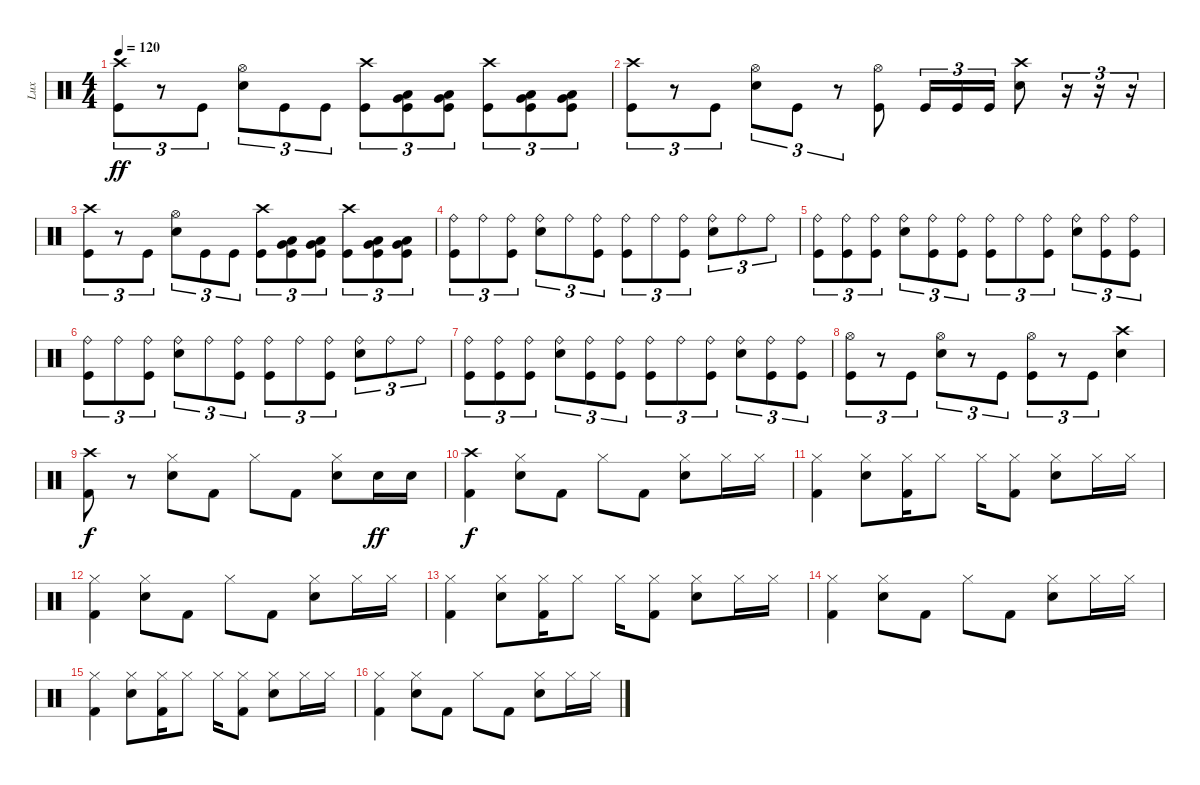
\track ("Lux" "Lux") {instrument percussion bank 32}
\staff {score}
\articulation defaults
\ts (4 4)
\tempo 120
\clef neutral
\ks c
("Crash high (hit)" "Kick (hit)").8{tu (3 2) dy ff} r.8{tu (3 2)} "Kick (hit)".8{tu (3 2)} ("Hi-Hat (open)" "Snare (hit) 2").8{tu (3 2)} "Kick (hit)".8{tu (3 2)} "Kick (hit)".8{tu (3 2)} ("Crash high (hit)" "Kick (hit)").8{tu (3 2)} ("Low Floor Tom (hit)" "Very Low Tom (hit)" "Kick (hit)").8{tu (3 2)} ("Low Floor Tom (hit)" "Very Low Tom (hit)" "Kick (hit)").8{tu (3 2)} ("Crash high (hit)" "Kick (hit)").8{tu (3 2)} ("Low Floor Tom (hit)" "Very Low Tom (hit)" "Kick (hit)").8{tu (3 2)} ("Low Floor Tom (hit)" "Very Low Tom (hit)" "Kick (hit)").8{tu (3 2)} |
("Crash high (hit)" "Kick (hit)").8{tu (3 2)} r.8{tu (3 2)} "Kick (hit)".8{tu (3 2)} ("Hi-Hat (open)" "Snare (hit) 2").8{tu (3 2)} "Kick (hit)".8{tu (3 2)} r.8{tu (3 2)} ("Hi-Hat (open)" "Kick (hit)").8 "Kick (hit)".16{tu (3 2)} "Kick (hit)".16{tu (3 2)} "Kick (hit)".16{tu (3 2)} ("Crash high (hit)" "Snare (hit) 2").8 r.16{tu (3 2)} r.16{tu (3 2)} r.16{tu (3 2)} |
("Crash high (hit)" "Kick (hit)").8{tu (3 2)} r.8{tu (3 2)} "Kick (hit)".8{tu (3 2)} ("Hi-Hat (open)" "Snare (hit) 2").8{tu (3 2)} "Kick (hit)".8{tu (3 2)} "Kick (hit)".8{tu (3 2)} ("Crash high (hit)" "Kick (hit)").8{tu (3 2)} ("Low Floor Tom (hit)" "Very Low Tom (hit)" "Kick (hit)").8{tu (3 2)} ("Low Floor Tom (hit)" "Very Low Tom (hit)" "Kick (hit)").8{tu (3 2)} ("Crash high (hit)" "Kick (hit)").8{tu (3 2)} ("Low Floor Tom (hit)" "Very Low Tom (hit)" "Kick (hit)").8{tu (3 2)} ("Low Floor Tom (hit)" "Very Low Tom (hit)" "Kick (hit)").8{tu (3 2)} |
("Ride (bell)" "Kick (hit)").8{tu (3 2)} "Ride (bell)".8{tu (3 2)} ("Ride (bell)" "Kick (hit)").8{tu (3 2)} ("Ride (bell)" "Snare (hit) 2").8{tu (3 2)} "Ride (bell)".8{tu (3 2)} ("Ride (bell)" "Kick (hit)").8{tu (3 2)} ("Ride (bell)" "Kick (hit)").8{tu (3 2)} "Ride (bell)".8{tu (3 2)} ("Ride (bell)" "Kick (hit)").8{tu (3 2)} ("Ride (bell)" "Snare (hit) 2").8{tu (3 2)} "Ride (bell)".8{tu (3 2)} "Ride (bell)".8{tu (3 2)} |
("Ride (bell)" "Kick (hit)").8{tu (3 2)} ("Ride (bell)" "Kick (hit)").8{tu (3 2)} ("Ride (bell)" "Kick (hit)").8{tu (3 2)} ("Ride (bell)" "Snare (hit) 2").8{tu (3 2)} ("Ride (bell)" "Kick (hit)").8{tu (3 2)} ("Ride (bell)" "Kick (hit)").8{tu (3 2)} ("Ride (bell)" "Kick (hit)").8{tu (3 2)} "Ride (bell)".8{tu (3 2)} ("Ride (bell)" "Kick (hit)").8{tu (3 2)} ("Ride (bell)" "Snare (hit) 2").8{tu (3 2)} ("Ride (bell)" "Kick (hit)").8{tu (3 2)} ("Ride (bell)" "Kick (hit)").8{tu (3 2)} |
("Ride (bell)" "Kick (hit)").8{tu (3 2)} "Ride (bell)".8{tu (3 2)} ("Ride (bell)" "Kick (hit)").8{tu (3 2)} ("Ride (bell)" "Snare (hit) 2").8{tu (3 2)} "Ride (bell)".8{tu (3 2)} ("Ride (bell)" "Kick (hit)").8{tu (3 2)} ("Ride (bell)" "Kick (hit)").8{tu (3 2)} "Ride (bell)".8{tu (3 2)} ("Ride (bell)" "Kick (hit)").8{tu (3 2)} ("Ride (bell)" "Snare (hit) 2").8{tu (3 2)} "Ride (bell)".8{tu (3 2)} "Ride (bell)".8{tu (3 2)} |
("Ride (bell)" "Kick (hit)").8{tu (3 2)} ("Ride (bell)" "Kick (hit)").8{tu (3 2)} ("Ride (bell)" "Kick (hit)").8{tu (3 2)} ("Ride (bell)" "Snare (hit) 2").8{tu (3 2)} ("Ride (bell)" "Kick (hit)").8{tu (3 2)} ("Ride (bell)" "Kick (hit)").8{tu (3 2)} ("Ride (bell)" "Kick (hit)").8{tu (3 2)} "Ride (bell)".8{tu (3 2)} ("Ride (bell)" "Kick (hit)").8{tu (3 2)} ("Ride (bell)" "Snare (hit) 2").8{tu (3 2)} ("Ride (bell)" "Kick (hit)").8{tu (3 2)} ("Ride (bell)" "Kick (hit)").8{tu (3 2)} |
("Hi-Hat (open)" "Kick (hit)").8{tu (3 2)} r.8{tu (3 2)} "Kick (hit)".8{tu (3 2)} ("Hi-Hat (open)" "Snare (hit) 2").8{tu (3 2)} r.8{tu (3 2)} "Kick (hit)".8{tu (3 2)} ("Hi-Hat (open)" "Kick (hit)").8{tu (3 2)} r.8{tu (3 2)} "Kick (hit)".8{tu (3 2)} ("Crash high (hit)" "Snare (hit) 2").4 |
("Crash high (hit)" "Kick (hit) 2").8{dy f} r.8 ("Hi-Hat (closed)" "Snare (hit) 2").8 "Kick (hit) 2".8 "Hi-Hat (closed)".8 "Kick (hit) 2".8 ("Hi-Hat (closed)" "Snare (hit) 2").8 "Snare (hit) 2".16{dy ff} "Snare (hit) 2".16 |
("Crash high (hit)" "Kick (hit) 2").4{dy f} ("Hi-Hat (closed)" "Snare (hit) 2").8 "Kick (hit) 2".8 "Hi-Hat (closed)".8 "Kick (hit) 2".8 ("Hi-Hat (closed)" "Snare (hit) 2").8 "Hi-Hat (closed)".16 "Hi-Hat (closed)".16 |
("Hi-Hat (closed)" "Kick (hit) 2").4 ("Hi-Hat (closed)" "Snare (hit) 2").8 ("Hi-Hat (closed)" "Kick (hit) 2").16 "Hi-Hat (closed)".8 "Hi-Hat (closed)".16 ("Hi-Hat (closed)" "Kick (hit) 2").8 ("Hi-Hat (closed)" "Snare (hit) 2").8 "Hi-Hat (closed)".16 "Hi-Hat (closed)".16 |
("Hi-Hat (closed)" "Kick (hit) 2").4 ("Hi-Hat (closed)" "Snare (hit) 2").8 "Kick (hit) 2".8 "Hi-Hat (closed)".8 "Kick (hit) 2".8 ("Hi-Hat (closed)" "Snare (hit) 2").8 "Hi-Hat (closed)".16 "Hi-Hat (closed)".16 |
("Hi-Hat (closed)" "Kick (hit) 2").4 ("Hi-Hat (closed)" "Snare (hit) 2").8 ("Hi-Hat (closed)" "Kick (hit) 2").16 "Hi-Hat (closed)".8 "Hi-Hat (closed)".16 ("Hi-Hat (closed)" "Kick (hit) 2").8 ("Hi-Hat (closed)" "Snare (hit) 2").8 "Hi-Hat (closed)".16 "Hi-Hat (closed)".16 |
("Hi-Hat (closed)" "Kick (hit) 2").4 ("Hi-Hat (closed)" "Snare (hit) 2").8 "Kick (hit) 2".8 "Hi-Hat (closed)".8 "Kick (hit) 2".8 ("Hi-Hat (closed)" "Snare (hit) 2").8 "Hi-Hat (closed)".16 "Hi-Hat (closed)".16 |
("Hi-Hat (closed)" "Kick (hit) 2").4 ("Hi-Hat (closed)" "Snare (hit) 2").8 ("Hi-Hat (closed)" "Kick (hit) 2").16 "Hi-Hat (closed)".8 "Hi-Hat (closed)".16 ("Hi-Hat (closed)" "Kick (hit) 2").8 ("Hi-Hat (closed)" "Snare (hit) 2").8 "Hi-Hat (closed)".16 "Hi-Hat (closed)".16 |
("Hi-Hat (closed)" "Kick (hit) 2").4 ("Hi-Hat (closed)" "Snare (hit) 2").8 "Kick (hit) 2".8 "Hi-Hat (closed)".8 "Kick (hit) 2".8 ("Hi-Hat (closed)" "Snare (hit) 2").8 "Hi-Hat (closed)".16 "Hi-Hat (closed)".16
